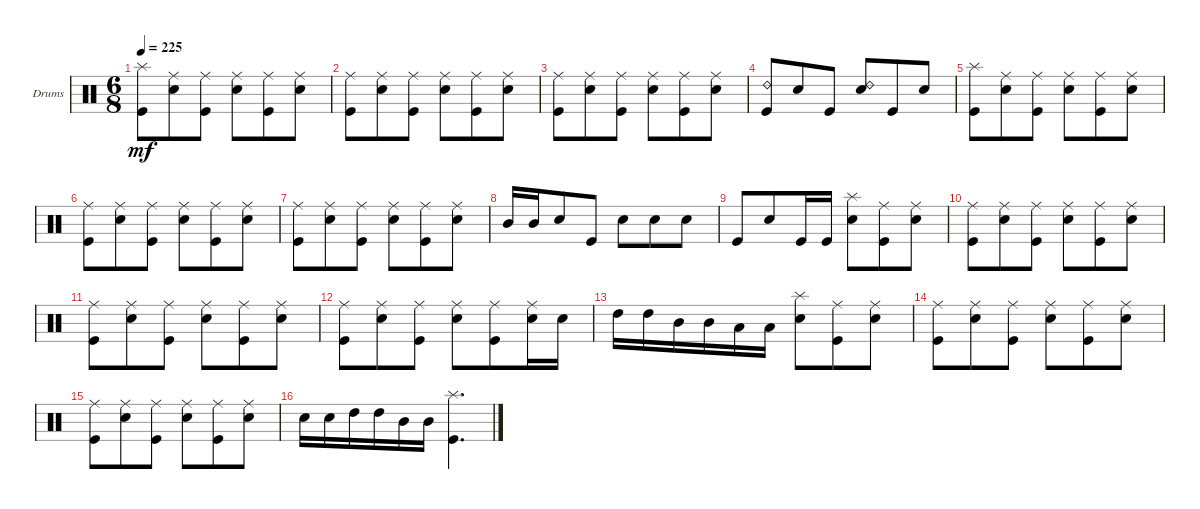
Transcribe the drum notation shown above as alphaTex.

\bracketExtendMode groupsimilarinstruments
\firstSystemTrackNameOrientation horizontal
\otherSystemsTrackNameOrientation horizontal
\track ("Drumkit" "Drums") {solo instrument percussion}
\staff {score}
\articulation defaults
\ts (6 8)
\tempo 225
\clef neutral
\ks c
("Kick (hit)" "Splash (hit)").8{dy mf} ("Snare (hit) 2" "Ride (middle)").8 ("Kick (hit)" "Ride (middle)").8 ("Snare (hit) 2" "Ride (middle)").8 ("Kick (hit)" "Ride (middle)").8 ("Snare (hit) 2" "Ride (middle)").8 |
("Kick (hit)" "Ride (middle)").8 ("Snare (hit) 2" "Ride (middle)").8 ("Kick (hit)" "Ride (middle)").8 ("Snare (hit) 2" "Ride (middle)").8 ("Kick (hit)" "Ride (middle)").8 ("Snare (hit) 2" "Ride (middle)").8 |
("Kick (hit)" "Ride (middle)").8 ("Snare (hit) 2" "Ride (middle)").8 ("Kick (hit)" "Ride (middle)").8 ("Snare (hit) 2" "Ride (middle)").8 ("Kick (hit)" "Ride (middle)").8 ("Snare (hit) 2" "Ride (middle)").8 |
("Kick (hit)" "Ride (bell) 2").8 "Snare (hit) 2".8 "Kick (hit)".8 ("Snare (hit) 2" "Ride (bell) 2").8 "Kick (hit)".8 "Snare (hit) 2".8 |
("Kick (hit)" "Splash (hit)").8 ("Snare (hit) 2" "Ride (middle)").8 ("Kick (hit)" "Ride (middle)").8 ("Snare (hit) 2" "Ride (middle)").8 ("Kick (hit)" "Ride (middle)").8 ("Snare (hit) 2" "Ride (middle)").8 |
("Kick (hit)" "Ride (middle)").8 ("Snare (hit) 2" "Ride (middle)").8 ("Kick (hit)" "Ride (middle)").8 ("Snare (hit) 2" "Ride (middle)").8 ("Kick (hit)" "Ride (middle)").8 ("Snare (hit) 2" "Ride (middle)").8 |
("Kick (hit)" "Ride (middle)").8 ("Snare (hit) 2" "Ride (middle)").8 ("Kick (hit)" "Ride (middle)").8 ("Snare (hit) 2" "Ride (middle)").8 ("Kick (hit)" "Ride (middle)").8 ("Snare (hit) 2" "Ride (middle)").8 |
"Mid Tom (hit)".16 "Mid Tom (hit)".16 "Snare (hit) 2".8 "Kick (hit)".8 "Snare (hit) 2".8 "Snare (hit) 2".8 "Snare (hit) 2".8 |
"Kick (hit)".8 "Snare (hit) 2".8 "Kick (hit)".16 "Kick (hit)".16 ("Snare (hit) 2" "Splash (hit)").8 ("Kick (hit)" "Ride (middle)").8 ("Snare (hit) 2" "Ride (middle)").8 |
("Kick (hit)" "Ride (middle)").8 ("Snare (hit) 2" "Ride (middle)").8 ("Kick (hit)" "Ride (middle)").8 ("Snare (hit) 2" "Ride (middle)").8 ("Kick (hit)" "Ride (middle)").8 ("Snare (hit) 2" "Ride (middle)").8 |
("Kick (hit)" "Ride (middle)").8 ("Snare (hit) 2" "Ride (middle)").8 ("Kick (hit)" "Ride (middle)").8 ("Snare (hit) 2" "Ride (middle)").8 ("Kick (hit)" "Ride (middle)").8 ("Snare (hit) 2" "Ride (middle)").8 |
("Kick (hit)" "Ride (middle)").8 ("Snare (hit) 2" "Ride (middle)").8 ("Kick (hit)" "Ride (middle)").8 ("Snare (hit) 2" "Ride (middle)").8 ("Kick (hit)" "Ride (middle)").8 ("Snare (hit) 2" "Ride (middle)").16 "Snare (hit) 2".16 |
"High Tom (hit)".16 "High Tom (hit)".16 "Mid Tom (hit)".16 "Mid Tom (hit)".16 "Low Tom (hit)".16 "Low Tom (hit)".16 ("Snare (hit) 2" "Splash (hit)").8 ("Kick (hit)" "Ride (middle)").8 ("Snare (hit) 2" "Ride (middle)").8 |
("Kick (hit)" "Ride (middle)").8 ("Snare (hit) 2" "Ride (middle)").8 ("Kick (hit)" "Ride (middle)").8 ("Snare (hit) 2" "Ride (middle)").8 ("Kick (hit)" "Ride (middle)").8 ("Snare (hit) 2" "Ride (middle)").8 |
("Kick (hit)" "Ride (middle)").8 ("Snare (hit) 2" "Ride (middle)").8 ("Kick (hit)" "Ride (middle)").8 ("Snare (hit) 2" "Ride (middle)").8 ("Kick (hit)" "Ride (middle)").8 ("Snare (hit) 2" "Ride (middle)").8 |
"Snare (hit) 2".16 "Snare (hit) 2".16 "High Tom (hit)".16 "High Tom (hit)".16 "Mid Tom (hit)".16 "Mid Tom (hit)".16 ("Kick (hit)" "Splash (hit)").4{d}
